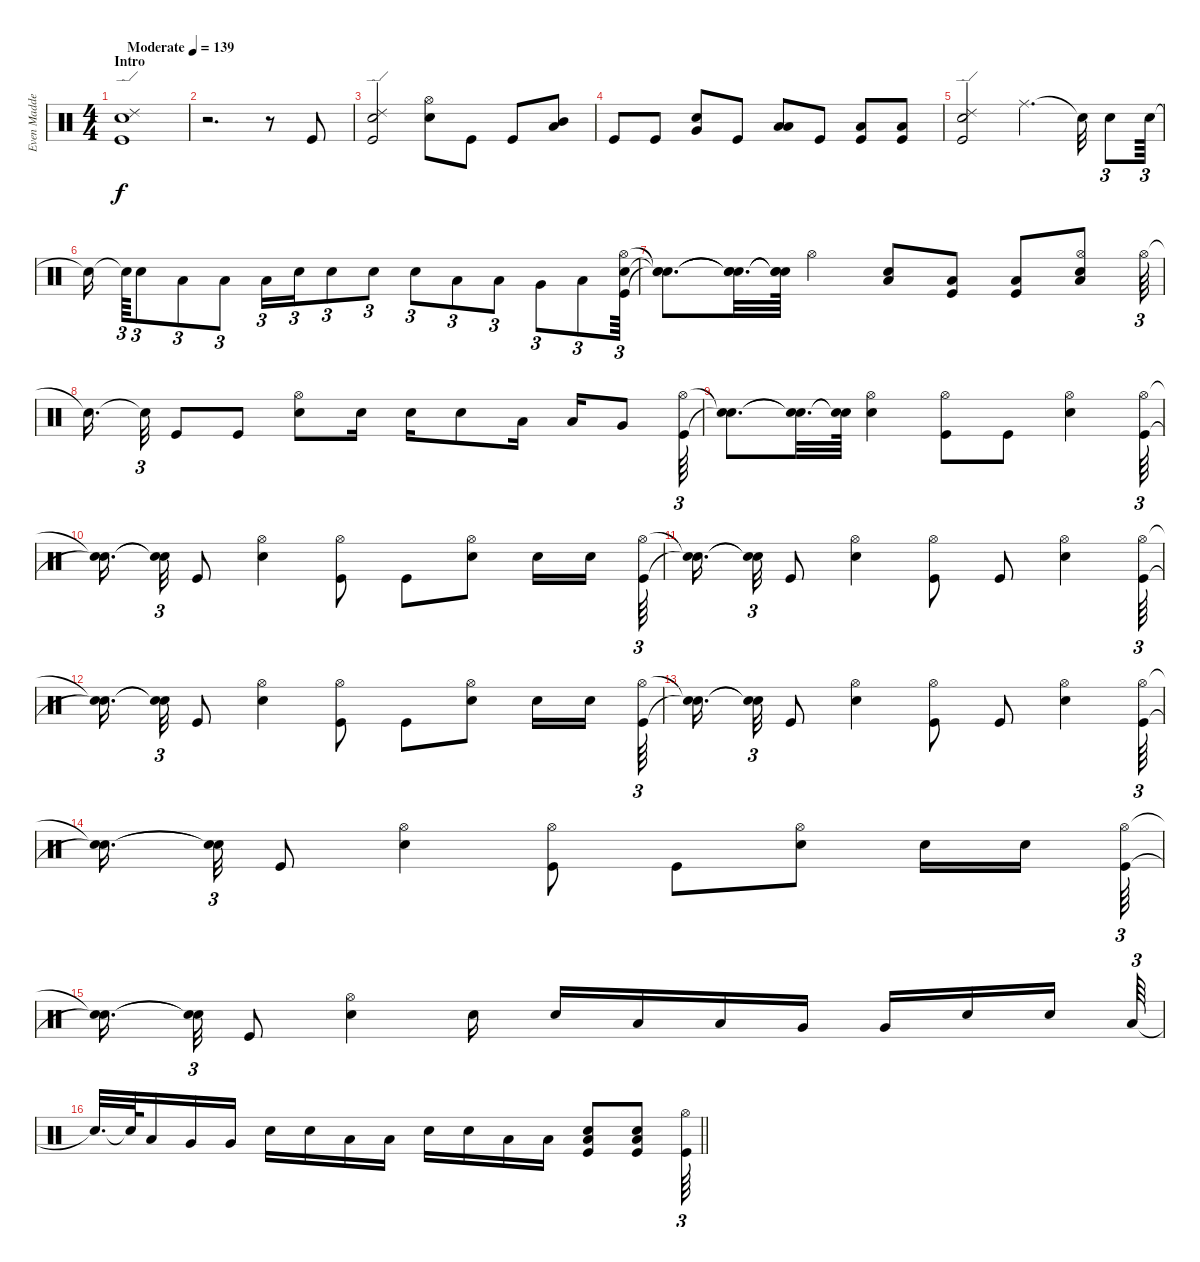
\track ("Even Madden - Drums" "Even Madde") {instrument percussion}
\staff {score}
\articulation defaults
\ts (4 4)
\section ("" "Intro")
\tempo (139 "Moderate")
\clef neutral
\ks c
("Kick (hit)" "Snare (hit) 2" "Ride (edge) 2").1{dy f} |
r.2{d} r.8 "Kick (hit)".8 |
("Snare (hit) 2" "Ride (edge) 2" "Kick (hit)").2 ("Snare (hit) 2" "Hi-Hat (open)").8 "Kick (hit)".8 "Kick (hit)".8 ("Mid Tom (hit)" "Low Tom (hit)").8 |
"Kick (hit)".8 "Kick (hit)".8 ("Snare (hit) 2" "Very Low Tom (hit)").8 "Kick (hit)".8 ("Low Tom (hit)" "Low Floor Tom (hit)").8 "Kick (hit)".8 ("Kick (hit)" "Low Tom (hit)").8 ("Low Tom (hit)" "Kick (hit)").8 |
("Kick (hit)" "Ride (edge) 2" "Snare (hit) 2").2 "Ride (middle)".4{d} "Snare (hit)"{t}.32 "Snare (hit) 2".8{tu (3 2)} "Snare (hit) 2".64{tu (3 2)} |
"Snare (hit)"{t}.16{beam splitsecondary} "Snare (hit)"{t}.64{tu (3 2)} "Snare (hit) 2".8{tu (3 2)} "Low Tom (hit)".8{tu (3 2)} "Low Tom (hit)".8{tu (3 2)} "Low Tom (hit)".16{tu (3 2)} "Snare (hit) 2".16{tu (3 2)} "Snare (hit) 2".8{tu (3 2)} "Snare (hit) 2".8{tu (3 2)} "Snare (hit) 2".8{tu (3 2)} "Low Tom (hit)".8{tu (3 2)} "Low Tom (hit)".8{tu (3 2)} "Very Low Tom (hit)".8{tu (3 2)} "Low Floor Tom (hit)".8{tu (3 2)} ("Kick (hit)" "Snare (hit) 2" "Hi-Hat (open)").64{tu (3 2)} |
("Snare (hit)"{t} "Snare (hit)"{t} "Snare (hit)"{t}).8{d} ("Snare (hit)"{t} "Snare (hit)"{t} "Snare (hit)"{t}).32{d} ("Snare (hit)"{t} "Snare (hit)"{t} "Snare (hit)"{t}).64 "Hi-Hat (open)".4 ("Snare (hit) 2" "Low Tom (hit)").8 ("Kick (hit)" "Low Tom (hit)").8 ("Kick (hit)" "Low Tom (hit)").8 ("Snare (hit) 2" "Hi-Hat (open)" "Low Tom (hit)").8 "Hi-Hat (open)".64{tu (3 2)} |
"Snare (hit)"{t}.16{d beam splitsecondary} "Snare (hit)"{t}.32{tu (3 2)} "Kick (hit)".8 "Kick (hit)".8 ("Snare (hit) 2" "Hi-Hat (open)").8 "Snare (hit) 2".16 "Snare (hit) 2".16 "Snare (hit) 2".8 "Low Tom (hit)".16 "Low Tom (hit)".16 "Very Low Tom (hit)".8 ("Kick (hit)" "Hi-Hat (open)").64{tu (3 2)} |
("Snare (hit)"{t} "Snare (hit)"{t}).8{d} ("Snare (hit)"{t} "Snare (hit)"{t}).32{d} ("Snare (hit)"{t} "Snare (hit)"{t}).64 ("Hi-Hat (open)" "Snare (hit) 2").4 ("Kick (hit)" "Hi-Hat (open)").8 "Kick (hit)".8 ("Hi-Hat (open)" "Snare (hit) 2").4 ("Kick (hit)" "Hi-Hat (open)").64{tu (3 2)} |
("Snare (hit)"{t} "Snare (hit)"{t}).16{d beam splitsecondary} ("Snare (hit)"{t} "Snare (hit)"{t}).32{tu (3 2)} "Kick (hit)".8 ("Hi-Hat (open)" "Snare (hit) 2").4 ("Kick (hit)" "Hi-Hat (open)").8 "Kick (hit)".8 ("Hi-Hat (open)" "Snare (hit) 2").8 "Snare (hit) 2".16 "Snare (hit) 2".16{beam splitsecondary} ("Kick (hit)" "Hi-Hat (open)").64{tu (3 2)} |
("Snare (hit)"{t} "Snare (hit)"{t}).16{d beam splitsecondary} ("Snare (hit)"{t} "Snare (hit)"{t}).32{tu (3 2)} "Kick (hit)".8 ("Hi-Hat (open)" "Snare (hit) 2").4 ("Kick (hit)" "Hi-Hat (open)").8 "Kick (hit)".8 ("Hi-Hat (open)" "Snare (hit) 2").4 ("Kick (hit)" "Hi-Hat (open)").64{tu (3 2)} |
("Snare (hit)"{t} "Snare (hit)"{t}).16{d beam splitsecondary} ("Snare (hit)"{t} "Snare (hit)"{t}).32{tu (3 2)} "Kick (hit)".8 ("Hi-Hat (open)" "Snare (hit) 2").4 ("Kick (hit)" "Hi-Hat (open)").8 "Kick (hit)".8 ("Hi-Hat (open)" "Snare (hit) 2").8 "Snare (hit) 2".16 "Snare (hit) 2".16{beam splitsecondary} ("Kick (hit)" "Hi-Hat (open)").64{tu (3 2)} |
("Snare (hit)"{t} "Snare (hit)"{t}).16{d beam splitsecondary} ("Snare (hit)"{t} "Snare (hit)"{t}).32{tu (3 2)} "Kick (hit)".8 ("Hi-Hat (open)" "Snare (hit) 2").4 ("Kick (hit)" "Hi-Hat (open)").8 "Kick (hit)".8 ("Hi-Hat (open)" "Snare (hit) 2").4 ("Kick (hit)" "Hi-Hat (open)").64{tu (3 2)} |
("Snare (hit)"{t} "Snare (hit)"{t}).16{d beam splitsecondary} ("Snare (hit)"{t} "Snare (hit)"{t}).32{tu (3 2)} "Kick (hit)".8 ("Hi-Hat (open)" "Snare (hit) 2").4 ("Kick (hit)" "Hi-Hat (open)").8 "Kick (hit)".8 ("Hi-Hat (open)" "Snare (hit) 2").8 "Snare (hit) 2".16 "Snare (hit) 2".16{beam splitsecondary} ("Kick (hit)" "Hi-Hat (open)").64{tu (3 2)} |
("Snare (hit)"{t} "Snare (hit)"{t}).16{d beam splitsecondary} ("Snare (hit)"{t} "Snare (hit)"{t}).32{tu (3 2)} "Kick (hit)".8 ("Hi-Hat (open)" "Snare (hit) 2").4 "Snare (hit) 2".16 "Snare (hit) 2".16 "Low Tom (hit)".16 "Low Tom (hit)".16 "Very Low Tom (hit)".16 "Very Low Tom (hit)".16 "Snare (hit) 2".16 "Snare (hit) 2".16{beam splitsecondary} "Low Tom (hit)".64{tu (3 2)} |
\barLineRight lightlight "Snare (hit)"{t}.32{d} "Snare (hit)"{t}.64 "Low Tom (hit)".16 "Very Low Tom (hit)".16 "Very Low Tom (hit)".16 "Snare (hit) 2".16 "Snare (hit) 2".16 "Low Tom (hit)".16 "Low Tom (hit)".16 "Snare (hit) 2".16 "Snare (hit) 2".16 "Low Tom (hit)".16 "Low Tom (hit)".16
("Low Tom (hit)" "Kick (hit)" "Snare (hit) 2").8 ("Kick (hit)" "Low Tom (hit)" "Snare (hit) 2").8 ("Kick (hit)" "Hi-Hat (open)").64{tu (3 2)}
